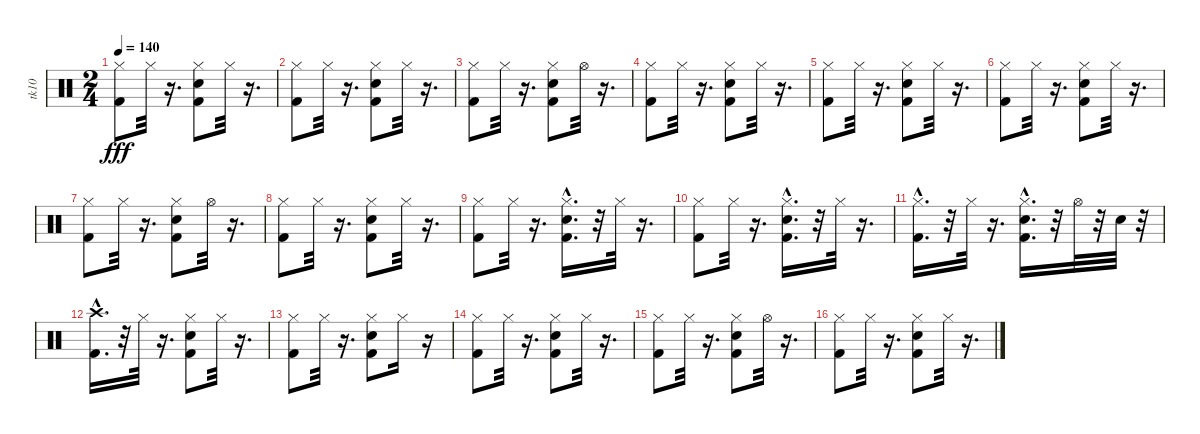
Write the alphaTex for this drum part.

\track ("tk10" "tk10") {instrument percussion}
\staff {score}
\articulation defaults
\ts (2 4)
\tempo 140
\clef neutral
\ks c
("Kick (hit) 2" "Hi-Hat (closed)").8{dy fff} "Hi-Hat (closed)".32 r.16{d} ("Kick (hit) 2" "Hi-Hat (closed)" "Snare (hit) 2").8 "Hi-Hat (closed)".32 r.16{d} |
("Kick (hit) 2" "Hi-Hat (closed)").8 "Hi-Hat (closed)".32 r.16{d} ("Snare (hit) 2" "Kick (hit) 2" "Hi-Hat (closed)").8 "Hi-Hat (closed)".32 r.16{d} |
("Kick (hit) 2" "Hi-Hat (closed)").8 "Hi-Hat (closed)".32 r.16{d} ("Snare (hit) 2" "Kick (hit) 2" "Hi-Hat (closed)").8 "Hi-Hat (open)".32 r.16{d} |
("Kick (hit) 2" "Hi-Hat (closed)").8 "Hi-Hat (closed)".32 r.16{d} ("Snare (hit) 2" "Kick (hit) 2" "Hi-Hat (closed)").8 "Hi-Hat (closed)".32 r.16{d} |
("Kick (hit) 2" "Hi-Hat (closed)").8 "Hi-Hat (closed)".32 r.16{d} ("Kick (hit) 2" "Hi-Hat (closed)" "Snare (hit) 2").8 "Hi-Hat (closed)".32 r.16{d} |
("Kick (hit) 2" "Hi-Hat (closed)").8 "Hi-Hat (closed)".32 r.16{d} ("Kick (hit) 2" "Hi-Hat (closed)" "Snare (hit) 2").8 "Hi-Hat (closed)".32 r.16{d} |
("Kick (hit) 2" "Hi-Hat (closed)").8 "Hi-Hat (closed)".32 r.16{d} ("Snare (hit) 2" "Kick (hit) 2" "Hi-Hat (closed)").8 "Hi-Hat (open)".32 r.16{d} |
("Kick (hit) 2" "Hi-Hat (closed)").8 "Hi-Hat (closed)".32 r.16{d} ("Snare (hit) 2" "Kick (hit) 2" "Hi-Hat (closed)").8 "Hi-Hat (closed)".32 r.16{d} |
("Kick (hit) 2" "Hi-Hat (closed)").8 "Hi-Hat (closed)".32 r.16{d} ("Snare (hit) 2"{hac} "Kick (hit) 2"{hac} "Hi-Hat (closed)").16{d} r.32 "Hi-Hat (closed)".32 r.16{d} |
("Kick (hit) 2" "Hi-Hat (closed)").8 "Hi-Hat (closed)".32 r.16{d} ("Snare (hit) 2"{hac} "Kick (hit) 2"{hac} "Hi-Hat (closed)").16{d} r.32 "Hi-Hat (closed)".32 r.16{d} |
("Kick (hit) 2"{hac} "Hi-Hat (closed)").16{d} r.32 "Hi-Hat (closed)".32 r.16{d} ("Kick (hit) 2"{hac} "Hi-Hat (closed)" "Snare (hit) 2"{hac}).16{d} r.32 "Hi-Hat (open)".32 r.32 "Snare (hit) 2".32 r.32 |
("Kick (hit) 2"{hac} "Crash high (hit)").16{d} r.32 "Hi-Hat (closed)".32 r.16{d} ("Hi-Hat (closed)" "Kick (hit) 2" "Snare (hit) 2").8 "Hi-Hat (closed)".32 r.16{d} |
("Kick (hit) 2" "Hi-Hat (closed)").8 "Hi-Hat (closed)".32 r.16{d} ("Snare (hit) 2" "Kick (hit) 2" "Hi-Hat (closed)").8 "Hi-Hat (closed)".16 r.16 |
("Kick (hit) 2" "Hi-Hat (closed)").8 "Hi-Hat (closed)".32 r.16{d} ("Hi-Hat (closed)" "Snare (hit) 2" "Kick (hit) 2").8 "Hi-Hat (closed)".32 r.16{d} |
("Kick (hit) 2" "Hi-Hat (closed)").8 "Hi-Hat (closed)".32 r.16{d} ("Snare (hit) 2" "Hi-Hat (closed)" "Kick (hit) 2").8 "Hi-Hat (open)".32 r.16{d} |
("Kick (hit) 2" "Hi-Hat (closed)").8 "Hi-Hat (closed)".32 r.16{d} ("Snare (hit) 2" "Kick (hit) 2" "Hi-Hat (closed)").8 "Hi-Hat (closed)".32 r.16{d}
